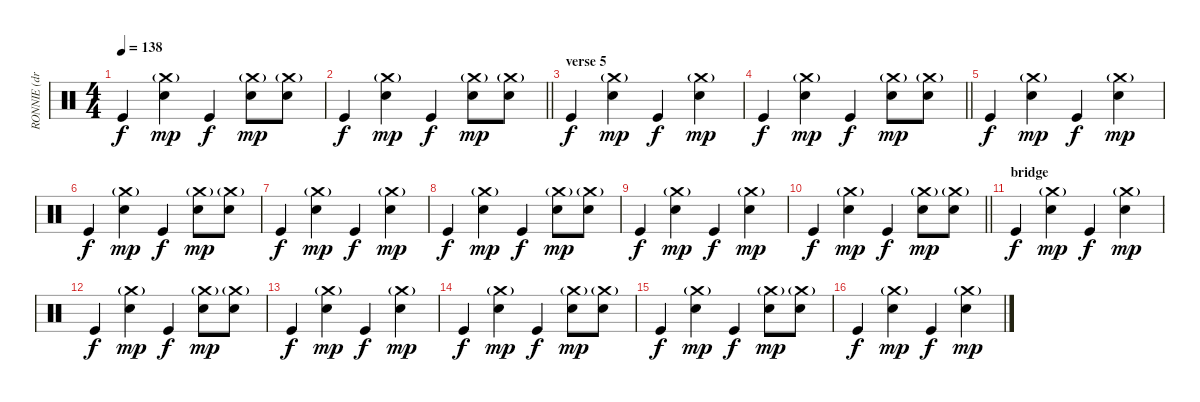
\track ("RONNIE (drums)" "RONNIE (dr") {instrument percussion}
\staff {score}
\articulation defaults
\ts (4 4)
\tempo 138
\clef neutral
\ks c "Kick (hit)".4{dy f}
("Electric Snare (hit)" "Crash medium (hit)"{g}).4{dy mp} "Kick (hit)".4{dy f} ("Electric Snare (hit)" "Crash medium (hit)"{g}).8{dy mp} ("Electric Snare (hit)" "Crash medium (hit)"{g}).8 |
\barLineRight lightlight "Kick (hit)".4{dy f}
("Electric Snare (hit)" "Crash medium (hit)"{g}).4{dy mp} "Kick (hit)".4{dy f} ("Electric Snare (hit)" "Crash medium (hit)"{g}).8{dy mp} ("Electric Snare (hit)" "Crash medium (hit)"{g}).8 |
\section ("" "verse 5")
"Kick (hit)".4{dy f} ("Electric Snare (hit)" "Crash medium (hit)"{g}).4{dy mp} "Kick (hit)".4{dy f} ("Electric Snare (hit)" "Crash medium (hit)"{g}).4{dy mp} |
\barLineRight lightlight "Kick (hit)".4{dy f}
("Electric Snare (hit)" "Crash medium (hit)"{g}).4{dy mp} "Kick (hit)".4{dy f} ("Electric Snare (hit)" "Crash medium (hit)"{g}).8{dy mp} ("Electric Snare (hit)" "Crash medium (hit)"{g}).8 |
"Kick (hit)".4{dy f} ("Electric Snare (hit)" "Crash medium (hit)"{g}).4{dy mp} "Kick (hit)".4{dy f} ("Electric Snare (hit)" "Crash medium (hit)"{g}).4{dy mp} |
"Kick (hit)".4{dy f} ("Electric Snare (hit)" "Crash medium (hit)"{g}).4{dy mp} "Kick (hit)".4{dy f} ("Electric Snare (hit)" "Crash medium (hit)"{g}).8{dy mp} ("Electric Snare (hit)" "Crash medium (hit)"{g}).8 |
"Kick (hit)".4{dy f} ("Electric Snare (hit)" "Crash medium (hit)"{g}).4{dy mp} "Kick (hit)".4{dy f} ("Electric Snare (hit)" "Crash medium (hit)"{g}).4{dy mp} |
"Kick (hit)".4{dy f} ("Electric Snare (hit)" "Crash medium (hit)"{g}).4{dy mp} "Kick (hit)".4{dy f} ("Electric Snare (hit)" "Crash medium (hit)"{g}).8{dy mp} ("Electric Snare (hit)" "Crash medium (hit)"{g}).8 |
"Kick (hit)".4{dy f} ("Electric Snare (hit)" "Crash medium (hit)"{g}).4{dy mp} "Kick (hit)".4{dy f} ("Electric Snare (hit)" "Crash medium (hit)"{g}).4{dy mp} |
\barLineRight lightlight "Kick (hit)".4{dy f}
("Electric Snare (hit)" "Crash medium (hit)"{g}).4{dy mp} "Kick (hit)".4{dy f} ("Electric Snare (hit)" "Crash medium (hit)"{g}).8{dy mp} ("Electric Snare (hit)" "Crash medium (hit)"{g}).8 |
\section ("" "bridge")
"Kick (hit)".4{dy f} ("Electric Snare (hit)" "Crash medium (hit)"{g}).4{dy mp} "Kick (hit)".4{dy f} ("Electric Snare (hit)" "Crash medium (hit)"{g}).4{dy mp} |
"Kick (hit)".4{dy f} ("Electric Snare (hit)" "Crash medium (hit)"{g}).4{dy mp} "Kick (hit)".4{dy f} ("Electric Snare (hit)" "Crash medium (hit)"{g}).8{dy mp} ("Electric Snare (hit)" "Crash medium (hit)"{g}).8 |
"Kick (hit)".4{dy f} ("Electric Snare (hit)" "Crash medium (hit)"{g}).4{dy mp} "Kick (hit)".4{dy f} ("Electric Snare (hit)" "Crash medium (hit)"{g}).4{dy mp} |
"Kick (hit)".4{dy f} ("Electric Snare (hit)" "Crash medium (hit)"{g}).4{dy mp} "Kick (hit)".4{dy f} ("Electric Snare (hit)" "Crash medium (hit)"{g}).8{dy mp} ("Electric Snare (hit)" "Crash medium (hit)"{g}).8 |
"Kick (hit)".4{dy f} ("Electric Snare (hit)" "Crash medium (hit)"{g}).4{dy mp} "Kick (hit)".4{dy f} ("Electric Snare (hit)" "Crash medium (hit)"{g}).8{dy mp} ("Electric Snare (hit)" "Crash medium (hit)"{g}).8 |
"Kick (hit)".4{dy f} ("Electric Snare (hit)" "Crash medium (hit)"{g}).4{dy mp} "Kick (hit)".4{dy f} ("Electric Snare (hit)" "Crash medium (hit)"{g}).4{dy mp}
